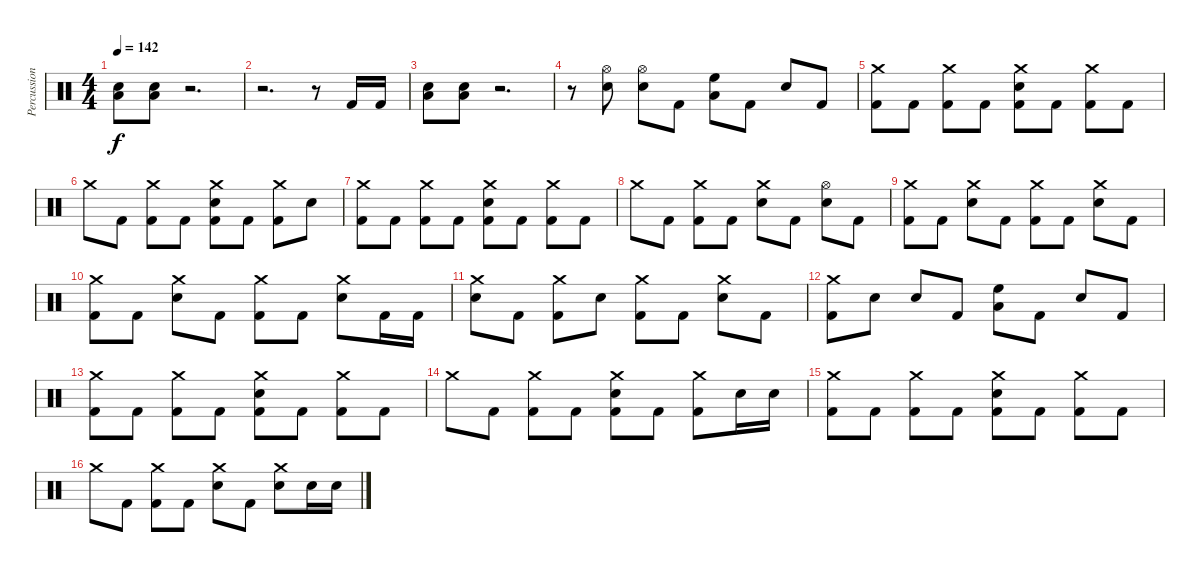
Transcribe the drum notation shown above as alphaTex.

\track ("Percussion" "Percussion") {instrument percussion}
\staff {score}
\articulation defaults
\ts (4 4)
\tempo 142
\clef neutral
\ks c
("Low Floor Tom (hit)" "Electric Snare (hit)").8{dy f} ("Low Floor Tom (hit)" "Electric Snare (hit)").8 r.2{d} |
r.2{d} r.8 "Kick (hit) 2".16 "Kick (hit) 2".16 |
("Low Floor Tom (hit)" "Electric Snare (hit)").8 ("Low Floor Tom (hit)" "Electric Snare (hit)").8 r.2{d} |
r.8 ("Hi-Hat (open)" "Electric Snare (hit)").8 ("Hi-Hat (open)" "Electric Snare (hit)").8 "Kick (hit) 2".8 ("Low Floor Tom (hit)" "High Floor Tom (hit)").8 "Kick (hit) 2".8 "Electric Snare (hit)".8 "Kick (hit) 2".8 |
("Crash medium (hit)" "Kick (hit) 2").8 "Kick (hit) 2".8 ("Crash medium (hit)" "Kick (hit) 2").8 "Kick (hit) 2".8 ("Crash medium (hit)" "Electric Snare (hit)" "Kick (hit) 2").8 "Kick (hit) 2".8 ("Crash medium (hit)" "Kick (hit) 2").8 "Kick (hit) 2".8 |
"Crash medium (hit)".8 "Kick (hit) 2".8 ("Crash medium (hit)" "Kick (hit) 2").8 "Kick (hit) 2".8 ("Crash medium (hit)" "Electric Snare (hit)" "Kick (hit) 2").8 "Kick (hit) 2".8 ("Crash medium (hit)" "Kick (hit) 2").8 "Electric Snare (hit)".8 |
("Crash medium (hit)" "Kick (hit) 2").8 "Kick (hit) 2".8 ("Crash medium (hit)" "Kick (hit) 2").8 "Kick (hit) 2".8 ("Crash medium (hit)" "Electric Snare (hit)" "Kick (hit) 2").8 "Kick (hit) 2".8 ("Crash medium (hit)" "Kick (hit) 2").8 "Kick (hit) 2".8 |
"Crash medium (hit)".8 "Kick (hit) 2".8 ("Crash medium (hit)" "Kick (hit) 2").8 "Kick (hit) 2".8 ("Crash medium (hit)" "Electric Snare (hit)").8 "Kick (hit) 2".8 ("Hi-Hat (open)" "Electric Snare (hit)").8 "Kick (hit) 2".8 |
("Crash medium (hit)" "Kick (hit) 2").8 "Kick (hit) 2".8 ("Crash medium (hit)" "Electric Snare (hit)").8 "Kick (hit) 2".8 ("Crash medium (hit)" "Kick (hit) 2").8 "Kick (hit) 2".8 ("Crash medium (hit)" "Electric Snare (hit)").8 "Kick (hit) 2".8 |
("Crash medium (hit)" "Kick (hit) 2").8 "Kick (hit) 2".8 ("Crash medium (hit)" "Electric Snare (hit)").8 "Kick (hit) 2".8 ("Crash medium (hit)" "Kick (hit) 2").8 "Kick (hit) 2".8 ("Crash medium (hit)" "Electric Snare (hit)").8 "Kick (hit) 2".16 "Kick (hit) 2".16 |
("Crash medium (hit)" "Electric Snare (hit)").8 "Kick (hit) 2".8 ("Crash medium (hit)" "Kick (hit) 2").8 "Electric Snare (hit)".8 ("Crash medium (hit)" "Kick (hit) 2").8 "Kick (hit) 2".8 ("Crash medium (hit)" "Electric Snare (hit)").8 "Kick (hit) 2".8 |
("Crash medium (hit)" "Kick (hit) 2").8 "Electric Snare (hit)".8 "Electric Snare (hit)".8 "Kick (hit) 2".8 ("Low Floor Tom (hit)" "High Floor Tom (hit)").8 "Kick (hit) 2".8 "Electric Snare (hit)".8 "Kick (hit) 2".8 |
("Crash medium (hit)" "Kick (hit) 2").8 "Kick (hit) 2".8 ("Crash medium (hit)" "Kick (hit) 2").8 "Kick (hit) 2".8 ("Crash medium (hit)" "Electric Snare (hit)" "Kick (hit) 2").8 "Kick (hit) 2".8 ("Crash medium (hit)" "Kick (hit) 2").8 "Kick (hit) 2".8 |
"Crash medium (hit)".8 "Kick (hit) 2".8 ("Crash medium (hit)" "Kick (hit) 2").8 "Kick (hit) 2".8 ("Crash medium (hit)" "Electric Snare (hit)" "Kick (hit) 2").8 "Kick (hit) 2".8 ("Crash medium (hit)" "Kick (hit) 2").8 "Electric Snare (hit)".16 "Electric Snare (hit)".16 |
("Crash medium (hit)" "Kick (hit) 2").8 "Kick (hit) 2".8 ("Crash medium (hit)" "Kick (hit) 2").8 "Kick (hit) 2".8 ("Crash medium (hit)" "Electric Snare (hit)" "Kick (hit) 2").8 "Kick (hit) 2".8 ("Crash medium (hit)" "Kick (hit) 2").8 "Kick (hit) 2".8 |
"Crash medium (hit)".8 "Kick (hit) 2".8 ("Crash medium (hit)" "Kick (hit) 2").8 "Kick (hit) 2".8 ("Crash medium (hit)" "Electric Snare (hit)").8 "Kick (hit) 2".8 ("Crash medium (hit)" "Electric Snare (hit)").8 "Electric Snare (hit)".16 "Electric Snare (hit)".16
